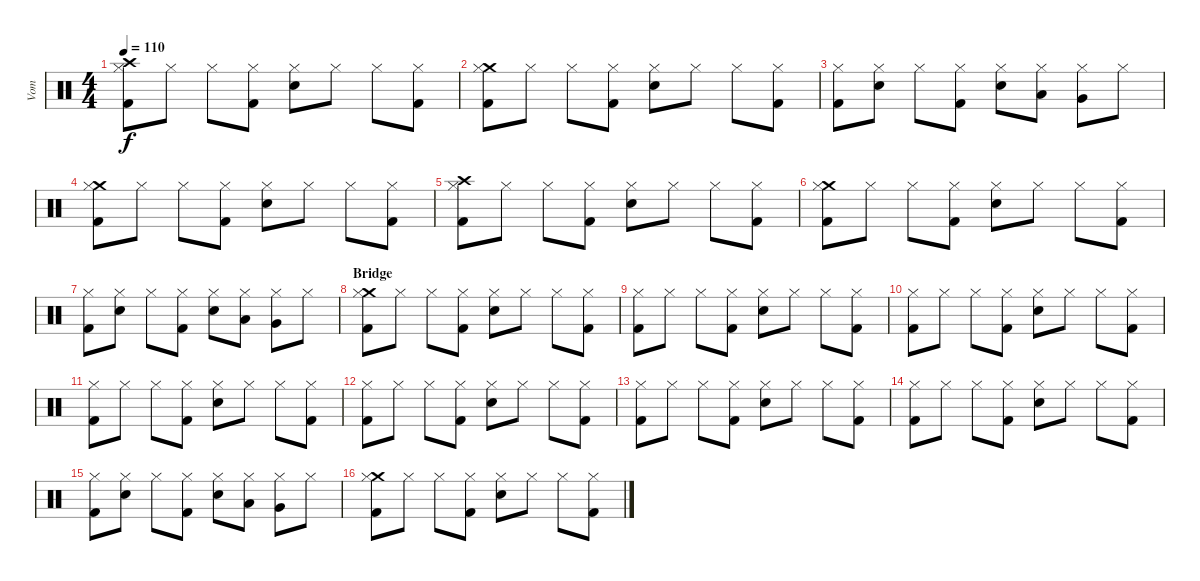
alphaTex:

\track ("Vom" "Vom") {instrument percussion}
\staff {score}
\articulation defaults
\ts (4 4)
\tempo 110
\clef neutral
\ks c
("Crash high (hit)" "Kick (hit) 2" "Hi-Hat (closed)").8{dy f} "Hi-Hat (closed)".8 "Hi-Hat (closed)".8 ("Kick (hit) 2" "Hi-Hat (closed)").8 ("Snare (hit) 2" "Hi-Hat (closed)").8 "Hi-Hat (closed)".8 "Hi-Hat (closed)".8 ("Kick (hit) 2" "Hi-Hat (closed)").8 |
("Crash medium (hit)" "Kick (hit) 2" "Hi-Hat (closed)").8 "Hi-Hat (closed)".8 "Hi-Hat (closed)".8 ("Kick (hit) 2" "Hi-Hat (closed)").8 ("Snare (hit) 2" "Hi-Hat (closed)").8 "Hi-Hat (closed)".8 "Hi-Hat (closed)".8 ("Kick (hit) 2" "Hi-Hat (closed)").8 |
("Kick (hit) 2" "Hi-Hat (closed)").8 ("Snare (hit) 2" "Hi-Hat (closed)").8 "Hi-Hat (closed)".8 ("Kick (hit) 2" "Hi-Hat (closed)").8 ("Snare (hit) 2" "Hi-Hat (closed)").8 ("Low Tom (hit)" "Hi-Hat (closed)").8 ("Very Low Tom (hit)" "Hi-Hat (closed)").8 "Hi-Hat (closed)".8 |
("Crash medium (hit)" "Kick (hit) 2" "Hi-Hat (closed)").8 "Hi-Hat (closed)".8 "Hi-Hat (closed)".8 ("Kick (hit) 2" "Hi-Hat (closed)").8 ("Snare (hit) 2" "Hi-Hat (closed)").8 "Hi-Hat (closed)".8 "Hi-Hat (closed)".8 ("Kick (hit) 2" "Hi-Hat (closed)").8 |
("Crash high (hit)" "Kick (hit) 2" "Hi-Hat (closed)").8 "Hi-Hat (closed)".8 "Hi-Hat (closed)".8 ("Kick (hit) 2" "Hi-Hat (closed)").8 ("Snare (hit) 2" "Hi-Hat (closed)").8 "Hi-Hat (closed)".8 "Hi-Hat (closed)".8 ("Kick (hit) 2" "Hi-Hat (closed)").8 |
("Crash medium (hit)" "Kick (hit) 2" "Hi-Hat (closed)").8 "Hi-Hat (closed)".8 "Hi-Hat (closed)".8 ("Kick (hit) 2" "Hi-Hat (closed)").8 ("Snare (hit) 2" "Hi-Hat (closed)").8 "Hi-Hat (closed)".8 "Hi-Hat (closed)".8 ("Kick (hit) 2" "Hi-Hat (closed)").8 |
("Kick (hit) 2" "Hi-Hat (closed)").8 ("Snare (hit) 2" "Hi-Hat (closed)").8 "Hi-Hat (closed)".8 ("Kick (hit) 2" "Hi-Hat (closed)").8 ("Snare (hit) 2" "Hi-Hat (closed)").8 ("Low Tom (hit)" "Hi-Hat (closed)").8 ("Very Low Tom (hit)" "Hi-Hat (closed)").8 "Hi-Hat (closed)".8 |
\section ("" "Bridge")
("Crash medium (hit)" "Kick (hit) 2" "Hi-Hat (closed)").8 "Hi-Hat (closed)".8 "Hi-Hat (closed)".8 ("Kick (hit) 2" "Hi-Hat (closed)").8 ("Snare (hit) 2" "Hi-Hat (closed)").8 "Hi-Hat (closed)".8 "Hi-Hat (closed)".8 ("Kick (hit) 2" "Hi-Hat (closed)").8 |
("Kick (hit) 2" "Hi-Hat (closed)").8 "Hi-Hat (closed)".8 "Hi-Hat (closed)".8 ("Kick (hit) 2" "Hi-Hat (closed)").8 ("Snare (hit) 2" "Hi-Hat (closed)").8 "Hi-Hat (closed)".8 "Hi-Hat (closed)".8 ("Kick (hit) 2" "Hi-Hat (closed)").8 |
("Kick (hit) 2" "Hi-Hat (closed)").8 "Hi-Hat (closed)".8 "Hi-Hat (closed)".8 ("Kick (hit) 2" "Hi-Hat (closed)").8 ("Snare (hit) 2" "Hi-Hat (closed)").8 "Hi-Hat (closed)".8 "Hi-Hat (closed)".8 ("Kick (hit) 2" "Hi-Hat (closed)").8 |
("Kick (hit) 2" "Hi-Hat (closed)").8 "Hi-Hat (closed)".8 "Hi-Hat (closed)".8 ("Kick (hit) 2" "Hi-Hat (closed)").8 ("Snare (hit) 2" "Hi-Hat (closed)").8 "Hi-Hat (closed)".8 "Hi-Hat (closed)".8 ("Kick (hit) 2" "Hi-Hat (closed)").8 |
("Kick (hit) 2" "Hi-Hat (closed)").8 "Hi-Hat (closed)".8 "Hi-Hat (closed)".8 ("Kick (hit) 2" "Hi-Hat (closed)").8 ("Snare (hit) 2" "Hi-Hat (closed)").8 "Hi-Hat (closed)".8 "Hi-Hat (closed)".8 ("Kick (hit) 2" "Hi-Hat (closed)").8 |
("Kick (hit) 2" "Hi-Hat (closed)").8 "Hi-Hat (closed)".8 "Hi-Hat (closed)".8 ("Kick (hit) 2" "Hi-Hat (closed)").8 ("Snare (hit) 2" "Hi-Hat (closed)").8 "Hi-Hat (closed)".8 "Hi-Hat (closed)".8 ("Kick (hit) 2" "Hi-Hat (closed)").8 |
("Kick (hit) 2" "Hi-Hat (closed)").8 "Hi-Hat (closed)".8 "Hi-Hat (closed)".8 ("Kick (hit) 2" "Hi-Hat (closed)").8 ("Snare (hit) 2" "Hi-Hat (closed)").8 "Hi-Hat (closed)".8 "Hi-Hat (closed)".8 ("Kick (hit) 2" "Hi-Hat (closed)").8 |
("Kick (hit) 2" "Hi-Hat (closed)").8 ("Snare (hit) 2" "Hi-Hat (closed)").8 "Hi-Hat (closed)".8 ("Kick (hit) 2" "Hi-Hat (closed)").8 ("Snare (hit) 2" "Hi-Hat (closed)").8 ("Low Tom (hit)" "Hi-Hat (closed)").8 ("Very Low Tom (hit)" "Hi-Hat (closed)").8 "Hi-Hat (closed)".8 |
("Crash medium (hit)" "Kick (hit) 2" "Hi-Hat (closed)").8 "Hi-Hat (closed)".8 "Hi-Hat (closed)".8 ("Kick (hit) 2" "Hi-Hat (closed)").8 ("Snare (hit) 2" "Hi-Hat (closed)").8 "Hi-Hat (closed)".8 "Hi-Hat (closed)".8 ("Kick (hit) 2" "Hi-Hat (closed)").8
